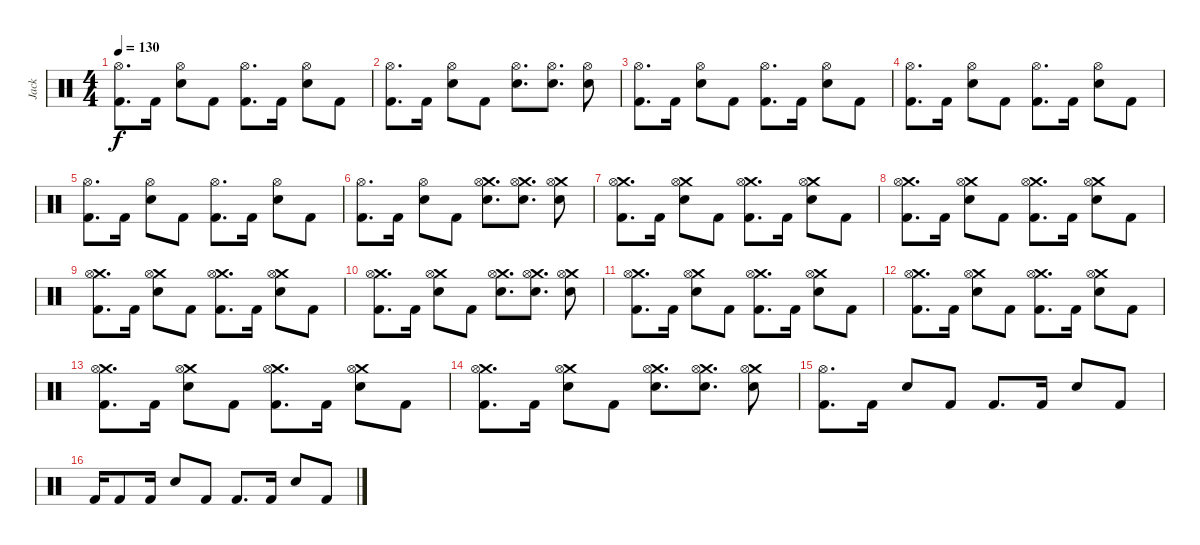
\track ("Jack" "Jack") {instrument percussion}
\staff {score}
\articulation defaults
\ts (4 4)
\tempo 130
\clef neutral
\ks c
("Hi-Hat (open)" "Kick (hit) 2").8{d dy f} "Kick (hit) 2".16 ("Hi-Hat (open)" "Snare (hit) 2").8 "Kick (hit) 2".8 ("Hi-Hat (open)" "Kick (hit) 2").8{d} "Kick (hit) 2".16 ("Hi-Hat (open)" "Snare (hit) 2").8 "Kick (hit) 2".8 |
("Hi-Hat (open)" "Kick (hit) 2").8{d} "Kick (hit) 2".16 ("Hi-Hat (open)" "Snare (hit) 2").8 "Kick (hit) 2".8 ("Hi-Hat (open)" "Snare (hit) 2").8{d} ("Hi-Hat (open)" "Snare (hit) 2").8{d} ("Hi-Hat (open)" "Snare (hit) 2").8 |
("Hi-Hat (open)" "Kick (hit) 2").8{d} "Kick (hit) 2".16 ("Hi-Hat (open)" "Snare (hit) 2").8 "Kick (hit) 2".8 ("Hi-Hat (open)" "Kick (hit) 2").8{d} "Kick (hit) 2".16 ("Hi-Hat (open)" "Snare (hit) 2").8 "Kick (hit) 2".8 |
("Hi-Hat (open)" "Kick (hit) 2").8{d} "Kick (hit) 2".16 ("Hi-Hat (open)" "Snare (hit) 2").8 "Kick (hit) 2".8 ("Hi-Hat (open)" "Kick (hit) 2").8{d} "Kick (hit) 2".16 ("Hi-Hat (open)" "Snare (hit) 2").8 "Kick (hit) 2".8 |
("Hi-Hat (open)" "Kick (hit) 2").8{d} "Kick (hit) 2".16 ("Hi-Hat (open)" "Snare (hit) 2").8 "Kick (hit) 2".8 ("Hi-Hat (open)" "Kick (hit) 2").8{d} "Kick (hit) 2".16 ("Hi-Hat (open)" "Snare (hit) 2").8 "Kick (hit) 2".8 |
("Hi-Hat (open)" "Kick (hit) 2").8{d} "Kick (hit) 2".16 ("Hi-Hat (open)" "Snare (hit) 2").8 "Kick (hit) 2".8 ("Crash medium (hit)" "Hi-Hat (open)" "Snare (hit) 2").8{d} ("Crash medium (hit)" "Hi-Hat (open)" "Snare (hit) 2").8{d} ("Crash medium (hit)" "Hi-Hat (open)" "Snare (hit) 2").8 |
("Crash medium (hit)" "Hi-Hat (open)" "Kick (hit) 2").8{d} "Kick (hit) 2".16 ("Crash medium (hit)" "Hi-Hat (open)" "Snare (hit) 2").8 "Kick (hit) 2".8 ("Crash medium (hit)" "Hi-Hat (open)" "Kick (hit) 2").8{d} "Kick (hit) 2".16 ("Crash medium (hit)" "Hi-Hat (open)" "Snare (hit) 2").8 "Kick (hit) 2".8 |
("Crash medium (hit)" "Hi-Hat (open)" "Kick (hit) 2").8{d} "Kick (hit) 2".16 ("Crash medium (hit)" "Hi-Hat (open)" "Snare (hit) 2").8 "Kick (hit) 2".8 ("Crash medium (hit)" "Hi-Hat (open)" "Kick (hit) 2").8{d} "Kick (hit) 2".16 ("Crash medium (hit)" "Hi-Hat (open)" "Snare (hit) 2").8 "Kick (hit) 2".8 |
("Crash medium (hit)" "Hi-Hat (open)" "Kick (hit) 2").8{d} "Kick (hit) 2".16 ("Crash medium (hit)" "Hi-Hat (open)" "Snare (hit) 2").8 "Kick (hit) 2".8 ("Crash medium (hit)" "Hi-Hat (open)" "Kick (hit) 2").8{d} "Kick (hit) 2".16 ("Crash medium (hit)" "Hi-Hat (open)" "Snare (hit) 2").8 "Kick (hit) 2".8 |
("Crash medium (hit)" "Hi-Hat (open)" "Kick (hit) 2").8{d} "Kick (hit) 2".16 ("Crash medium (hit)" "Hi-Hat (open)" "Snare (hit) 2").8 "Kick (hit) 2".8 ("Crash medium (hit)" "Hi-Hat (open)" "Snare (hit) 2").8{d} ("Crash medium (hit)" "Hi-Hat (open)" "Snare (hit) 2").8{d} ("Crash medium (hit)" "Hi-Hat (open)" "Snare (hit) 2").8 |
("Crash medium (hit)" "Hi-Hat (open)" "Kick (hit) 2").8{d} "Kick (hit) 2".16 ("Crash medium (hit)" "Hi-Hat (open)" "Snare (hit) 2").8 "Kick (hit) 2".8 ("Crash medium (hit)" "Hi-Hat (open)" "Kick (hit) 2").8{d} "Kick (hit) 2".16 ("Crash medium (hit)" "Hi-Hat (open)" "Snare (hit) 2").8 "Kick (hit) 2".8 |
("Crash medium (hit)" "Hi-Hat (open)" "Kick (hit) 2").8{d} "Kick (hit) 2".16 ("Crash medium (hit)" "Hi-Hat (open)" "Snare (hit) 2").8 "Kick (hit) 2".8 ("Crash medium (hit)" "Hi-Hat (open)" "Kick (hit) 2").8{d} "Kick (hit) 2".16 ("Crash medium (hit)" "Hi-Hat (open)" "Snare (hit) 2").8 "Kick (hit) 2".8 |
("Crash medium (hit)" "Hi-Hat (open)" "Kick (hit) 2").8{d} "Kick (hit) 2".16 ("Crash medium (hit)" "Hi-Hat (open)" "Snare (hit) 2").8 "Kick (hit) 2".8 ("Crash medium (hit)" "Hi-Hat (open)" "Kick (hit) 2").8{d} "Kick (hit) 2".16 ("Crash medium (hit)" "Hi-Hat (open)" "Snare (hit) 2").8 "Kick (hit) 2".8 |
("Crash medium (hit)" "Hi-Hat (open)" "Kick (hit) 2").8{d} "Kick (hit) 2".16 ("Crash medium (hit)" "Hi-Hat (open)" "Snare (hit) 2").8 "Kick (hit) 2".8 ("Crash medium (hit)" "Hi-Hat (open)" "Snare (hit) 2").8{d} ("Crash medium (hit)" "Hi-Hat (open)" "Snare (hit) 2").8{d} ("Crash medium (hit)" "Hi-Hat (open)" "Snare (hit) 2").8 |
("Hi-Hat (open)" "Kick (hit) 2").8{d} "Kick (hit) 2".16 "Snare (hit) 2".8 "Kick (hit) 2".8 "Kick (hit) 2".8{d} "Kick (hit) 2".16 "Snare (hit) 2".8 "Kick (hit) 2".8 |
"Kick (hit) 2".16 "Kick (hit) 2".8 "Kick (hit) 2".16 "Snare (hit) 2".8 "Kick (hit) 2".8 "Kick (hit) 2".8{d} "Kick (hit) 2".16 "Snare (hit) 2".8 "Kick (hit) 2".8
